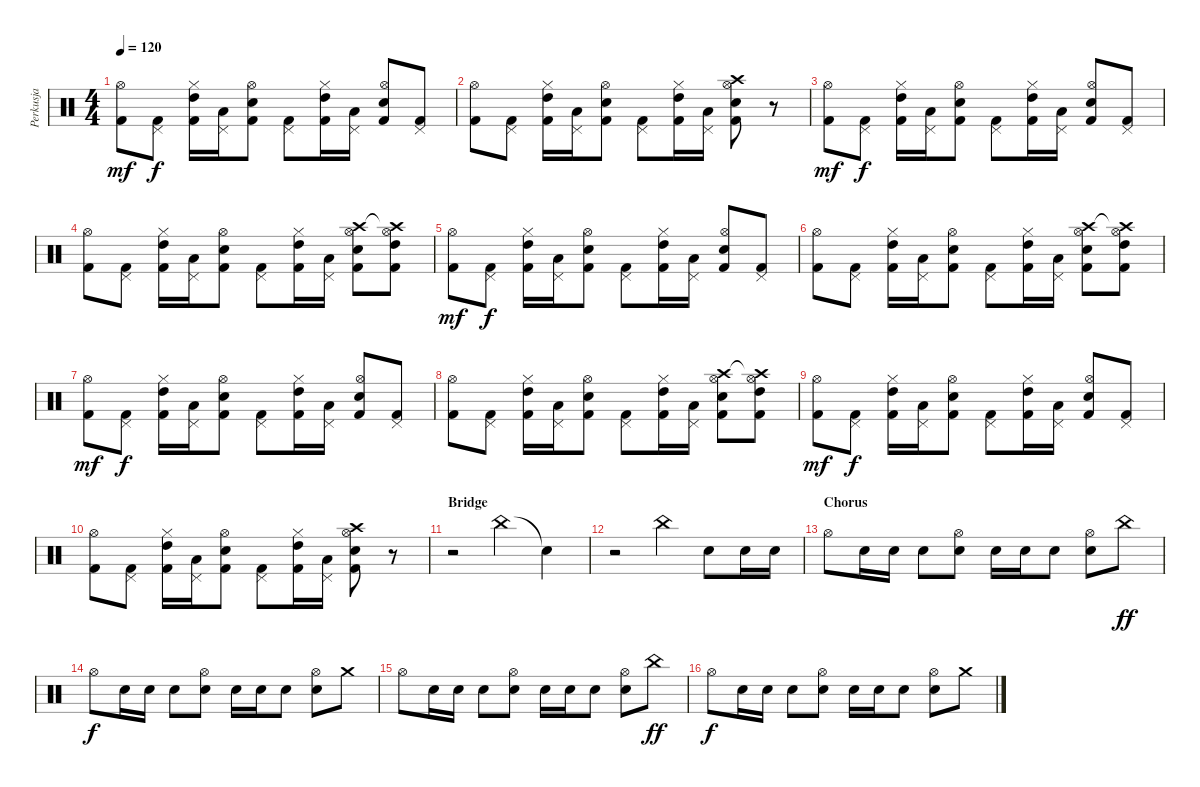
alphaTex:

\track ("Perkusja" "Perkusja") {instrument percussion}
\staff {score}
\articulation defaults
\ts (4 4)
\tempo 120
\clef neutral
\ks c
("Kick (hit) 2" "Hi-Hat (open)").8{dy mf} ("Kick (hit) 2" "Pedal Hi-Hat (hit)").8{dy f} ("Kick (hit) 2" "High Tom (hit)" "Hi-Hat (closed)").16 ("Low Tom (hit)" "Pedal Hi-Hat (hit)").16 ("Kick (hit) 2" "Snare (hit) 2" "Hi-Hat (open)").8 ("Kick (hit) 2" "Pedal Hi-Hat (hit)").8 ("Kick (hit) 2" "High Tom (hit)" "Hi-Hat (closed)").16 ("Low Tom (hit)" "Pedal Hi-Hat (hit)").16 ("Kick (hit) 2" "Snare (hit) 2" "Hi-Hat (open)").8 ("Kick (hit) 2" "Pedal Hi-Hat (hit)").8 |
("Kick (hit) 2" "Hi-Hat (open)").8 ("Kick (hit) 2" "Pedal Hi-Hat (hit)").8 ("Kick (hit) 2" "High Tom (hit)" "Hi-Hat (closed)").16 ("Low Tom (hit)" "Pedal Hi-Hat (hit)").16 ("Kick (hit) 2" "Snare (hit) 2" "Hi-Hat (open)").8 ("Kick (hit) 2" "Pedal Hi-Hat (hit)").8 ("Kick (hit) 2" "High Tom (hit)" "Hi-Hat (closed)").16 ("Low Tom (hit)" "Pedal Hi-Hat (hit)").16 ("Kick (hit) 2" "Snare (hit) 2" "Crash high (hit)" "Hi-Hat (open)").8 r.8 |
("Kick (hit) 2" "Hi-Hat (open)").8{dy mf} ("Kick (hit) 2" "Pedal Hi-Hat (hit)").8{dy f} ("Kick (hit) 2" "High Tom (hit)" "Hi-Hat (closed)").16 ("Low Tom (hit)" "Pedal Hi-Hat (hit)").16 ("Kick (hit) 2" "Snare (hit) 2" "Hi-Hat (open)").8 ("Kick (hit) 2" "Pedal Hi-Hat (hit)").8 ("Kick (hit) 2" "High Tom (hit)" "Hi-Hat (closed)").16 ("Low Tom (hit)" "Pedal Hi-Hat (hit)").16 ("Kick (hit) 2" "Snare (hit) 2" "Hi-Hat (open)").8 ("Kick (hit) 2" "Pedal Hi-Hat (hit)").8 |
("Kick (hit) 2" "Hi-Hat (open)").8 ("Kick (hit) 2" "Pedal Hi-Hat (hit)").8 ("Kick (hit) 2" "High Tom (hit)" "Hi-Hat (closed)").16 ("Low Tom (hit)" "Pedal Hi-Hat (hit)").16 ("Kick (hit) 2" "Snare (hit) 2" "Hi-Hat (open)").8 ("Kick (hit) 2" "Pedal Hi-Hat (hit)").8 ("Kick (hit) 2" "High Tom (hit)" "Hi-Hat (closed)").16 ("Low Tom (hit)" "Pedal Hi-Hat (hit)").16 ("Kick (hit) 2" "Snare (hit) 2" "Crash high (hit)" "Hi-Hat (open)").8 ("Kick (hit) 2" "High Tom (hit)" "Crash high (hit)"{t} "Hi-Hat (open)").8 |
("Kick (hit) 2" "Hi-Hat (open)").8{dy mf} ("Kick (hit) 2" "Pedal Hi-Hat (hit)").8{dy f} ("Kick (hit) 2" "High Tom (hit)" "Hi-Hat (closed)").16 ("Low Tom (hit)" "Pedal Hi-Hat (hit)").16 ("Kick (hit) 2" "Snare (hit) 2" "Hi-Hat (open)").8 ("Kick (hit) 2" "Pedal Hi-Hat (hit)").8 ("Kick (hit) 2" "High Tom (hit)" "Hi-Hat (closed)").16 ("Low Tom (hit)" "Pedal Hi-Hat (hit)").16 ("Kick (hit) 2" "Snare (hit) 2" "Hi-Hat (open)").8 ("Kick (hit) 2" "Pedal Hi-Hat (hit)").8 |
("Kick (hit) 2" "Hi-Hat (open)").8 ("Kick (hit) 2" "Pedal Hi-Hat (hit)").8 ("Kick (hit) 2" "High Tom (hit)" "Hi-Hat (closed)").16 ("Low Tom (hit)" "Pedal Hi-Hat (hit)").16 ("Kick (hit) 2" "Snare (hit) 2" "Hi-Hat (open)").8 ("Kick (hit) 2" "Pedal Hi-Hat (hit)").8 ("Kick (hit) 2" "High Tom (hit)" "Hi-Hat (closed)").16 ("Low Tom (hit)" "Pedal Hi-Hat (hit)").16 ("Kick (hit) 2" "Snare (hit) 2" "Crash high (hit)" "Hi-Hat (open)").8 ("Kick (hit) 2" "High Tom (hit)" "Crash high (hit)"{t} "Hi-Hat (open)").8 |
("Kick (hit) 2" "Hi-Hat (open)").8{dy mf} ("Kick (hit) 2" "Pedal Hi-Hat (hit)").8{dy f} ("Kick (hit) 2" "High Tom (hit)" "Hi-Hat (closed)").16 ("Low Tom (hit)" "Pedal Hi-Hat (hit)").16 ("Kick (hit) 2" "Snare (hit) 2" "Hi-Hat (open)").8 ("Kick (hit) 2" "Pedal Hi-Hat (hit)").8 ("Kick (hit) 2" "High Tom (hit)" "Hi-Hat (closed)").16 ("Low Tom (hit)" "Pedal Hi-Hat (hit)").16 ("Kick (hit) 2" "Snare (hit) 2" "Hi-Hat (open)").8 ("Kick (hit) 2" "Pedal Hi-Hat (hit)").8 |
("Kick (hit) 2" "Hi-Hat (open)").8 ("Kick (hit) 2" "Pedal Hi-Hat (hit)").8 ("Kick (hit) 2" "High Tom (hit)" "Hi-Hat (closed)").16 ("Low Tom (hit)" "Pedal Hi-Hat (hit)").16 ("Kick (hit) 2" "Snare (hit) 2" "Hi-Hat (open)").8 ("Kick (hit) 2" "Pedal Hi-Hat (hit)").8 ("Kick (hit) 2" "High Tom (hit)" "Hi-Hat (closed)").16 ("Low Tom (hit)" "Pedal Hi-Hat (hit)").16 ("Kick (hit) 2" "Snare (hit) 2" "Crash high (hit)" "Hi-Hat (open)").8 ("Kick (hit) 2" "High Tom (hit)" "Crash high (hit)"{t} "Hi-Hat (open)").8 |
("Kick (hit) 2" "Hi-Hat (open)").8{dy mf} ("Kick (hit) 2" "Pedal Hi-Hat (hit)").8{dy f} ("Kick (hit) 2" "High Tom (hit)" "Hi-Hat (closed)").16 ("Low Tom (hit)" "Pedal Hi-Hat (hit)").16 ("Kick (hit) 2" "Snare (hit) 2" "Hi-Hat (open)").8 ("Kick (hit) 2" "Pedal Hi-Hat (hit)").8 ("Kick (hit) 2" "High Tom (hit)" "Hi-Hat (closed)").16 ("Low Tom (hit)" "Pedal Hi-Hat (hit)").16 ("Kick (hit) 2" "Snare (hit) 2" "Hi-Hat (open)").8 ("Kick (hit) 2" "Pedal Hi-Hat (hit)").8 |
("Kick (hit) 2" "Hi-Hat (open)").8 ("Kick (hit) 2" "Pedal Hi-Hat (hit)").8 ("Kick (hit) 2" "High Tom (hit)" "Hi-Hat (closed)").16 ("Low Tom (hit)" "Pedal Hi-Hat (hit)").16 ("Kick (hit) 2" "Snare (hit) 2" "Hi-Hat (open)").8 ("Kick (hit) 2" "Pedal Hi-Hat (hit)").8 ("Kick (hit) 2" "High Tom (hit)" "Hi-Hat (closed)").16 ("Low Tom (hit)" "Pedal Hi-Hat (hit)").16 ("Kick (hit) 2" "Snare (hit) 2" "Crash high (hit)" "Hi-Hat (open)").8 r.8 |
\section ("" "Bridge")
r.2 "China (hit)".4 "Snare (hit)"{t}.4 |
r.2 "China (hit)".4 "Snare (hit) 2".8 "Electric Snare (hit)".16 "Snare (hit) 2".16 |
\section ("" "Chorus")
"Hi-Hat (open)".8 "Electric Snare (hit)".16 "Electric Snare (hit)".16 "Snare (hit) 2".8 ("Metronome (bell)" "Hi-Hat (open)").8 "Electric Snare (hit)".16 "Electric Snare (hit)".16 "Snare (hit) 2".8 ("Metronome (bell)" "Hi-Hat (open)").8 "China (hit)".8{dy ff} |
"Hi-Hat (open)".8{dy f} "Electric Snare (hit)".16 "Electric Snare (hit)".16 "Snare (hit) 2".8 ("Metronome (bell)" "Hi-Hat (open)").8 "Electric Snare (hit)".16 "Electric Snare (hit)".16 "Snare (hit) 2".8 ("Metronome (bell)" "Hi-Hat (open)").8 "Crash medium (hit)".8 |
"Hi-Hat (open)".8 "Electric Snare (hit)".16 "Electric Snare (hit)".16 "Snare (hit) 2".8 ("Metronome (bell)" "Hi-Hat (open)").8 "Electric Snare (hit)".16 "Electric Snare (hit)".16 "Snare (hit) 2".8 ("Metronome (bell)" "Hi-Hat (open)").8 "China (hit)".8{dy ff} |
"Hi-Hat (open)".8{dy f} "Electric Snare (hit)".16 "Electric Snare (hit)".16 "Snare (hit) 2".8 ("Metronome (bell)" "Hi-Hat (open)").8 "Electric Snare (hit)".16 "Electric Snare (hit)".16 "Snare (hit) 2".8 ("Metronome (bell)" "Hi-Hat (open)").8 "Crash medium (hit)".8
